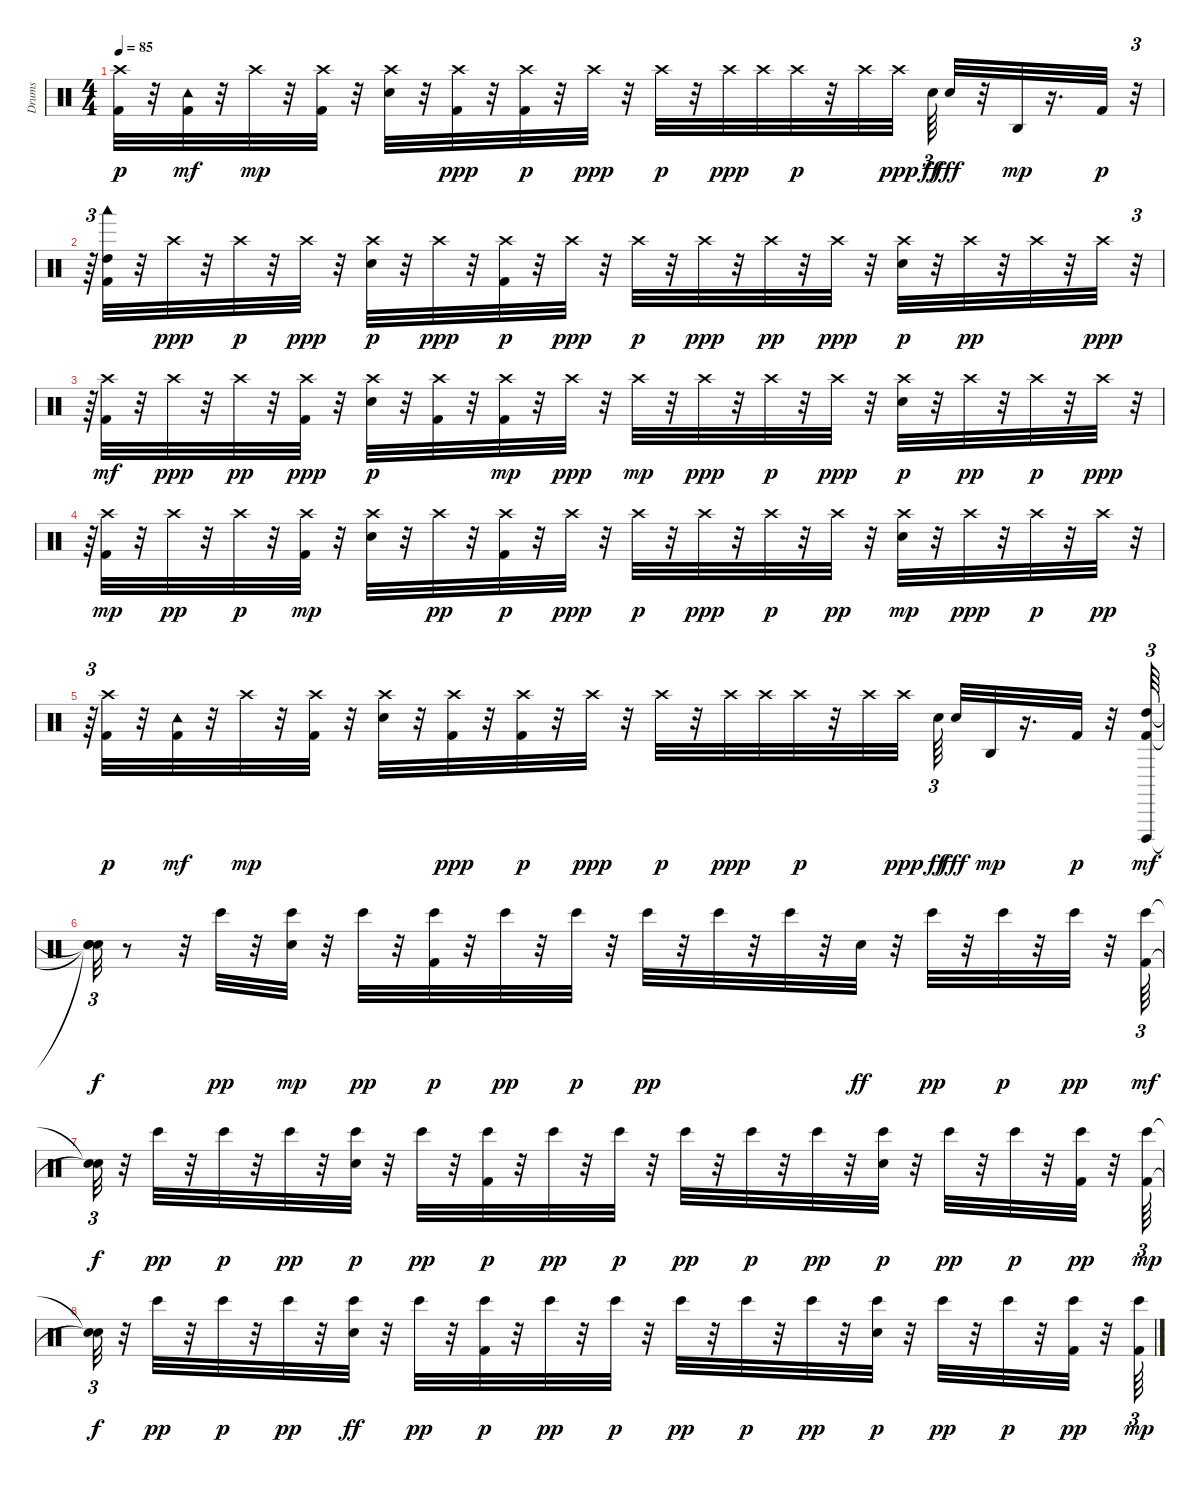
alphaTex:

\track ("Drums" "Drums") {instrument percussion}
\staff {score}
\articulation defaults
\ts (4 4)
\tempo 85
\clef neutral
\ks c
("Kick (hit) 2" "Crash high (hit)").32{dy p} r.32 ("Kick (hit) 2" "Tambourine (hit)").32{dy mf} r.32 "Crash high (hit)".32{dy mp} r.32 ("Crash high (hit)" "Kick (hit) 2").32 r.32 ("Snare (hit) 2" "Crash high (hit)").32 r.32 ("Kick (hit) 2" "Crash high (hit)").32{dy ppp} r.32 ("Kick (hit) 2" "Crash high (hit)").32{dy p} r.32 "Crash high (hit)".32{dy ppp} r.32 "Crash high (hit)".32{dy p} r.32 "Crash high (hit)".32{dy ppp} "Crash high (hit)".32 "Crash high (hit)".32{dy p} r.32 "Crash high (hit)".32 "Crash high (hit)".32{dy ppp} "Snare (hit) 2".64{tu (3 2) dy ff} "Snare (hit) 2".32{dy fff} r.32 "Agogo high (hit)".32{dy mp} r.16{d} "Kick (hit) 2".32{dy p} r.32{tu (3 2)} |
r.64{tu (3 2)} ("Kick (hit) 2" "High Tom (hit)" "Woodblock low (hit)").32 r.32 "Crash high (hit)".32{dy ppp} r.32 "Crash high (hit)".32{dy p} r.32 "Crash high (hit)".32{dy ppp} r.32 ("Snare (hit) 2" "Crash high (hit)").32{dy p} r.32 "Crash high (hit)".32{dy ppp} r.32 ("Kick (hit) 2" "Crash high (hit)").32{dy p} r.32 "Crash high (hit)".32{dy ppp} r.32 "Crash high (hit)".32{dy p} r.32 "Crash high (hit)".32{dy ppp} r.32 "Crash high (hit)".32{dy pp} r.32 "Crash high (hit)".32{dy ppp} r.32 ("Crash high (hit)" "Snare (hit) 2").32{dy p} r.32 "Crash high (hit)".32{dy pp} r.32 "Crash high (hit)".32 r.32 "Crash high (hit)".32{dy ppp} r.32{tu (3 2)} |
r.64{tu (3 2)} ("Crash high (hit)" "Kick (hit) 2").32{dy mf} r.32 "Crash high (hit)".32{dy ppp} r.32 "Crash high (hit)".32{dy pp} r.32 ("Kick (hit) 2" "Crash high (hit)").32{dy ppp} r.32 ("Snare (hit) 2" "Crash high (hit)").32{dy p} r.32 ("Crash high (hit)" "Kick (hit) 2").32 r.32 ("Kick (hit) 2" "Crash high (hit)").32{dy mp} r.32 "Crash high (hit)".32{dy ppp} r.32 "Crash high (hit)".32{dy mp} r.32 "Crash high (hit)".32{dy ppp} r.32 "Crash high (hit)".32{dy p} r.32 "Crash high (hit)".32{dy ppp} r.32 ("Snare (hit) 2" "Crash high (hit)").32{dy p} r.32 "Crash high (hit)".32{dy pp} r.32 "Crash high (hit)".32{dy p} r.32 "Crash high (hit)".32{dy ppp} r.32{tu (3 2)} |
r.64{tu (3 2)} ("Crash high (hit)" "Kick (hit) 2").32{dy mp} r.32 "Crash high (hit)".32{dy pp} r.32 "Crash high (hit)".32{dy p} r.32 ("Crash high (hit)" "Kick (hit) 2").32{dy mp} r.32 ("Snare (hit) 2" "Crash high (hit)").32 r.32 "Crash high (hit)".32{dy pp} r.32 ("Kick (hit) 2" "Crash high (hit)").32{dy p} r.32 "Crash high (hit)".32{dy ppp} r.32 "Crash high (hit)".32{dy p} r.32 "Crash high (hit)".32{dy ppp} r.32 "Crash high (hit)".32{dy p} r.32 "Crash high (hit)".32{dy pp} r.32 ("Snare (hit) 2" "Crash high (hit)").32{dy mp} r.32 "Crash high (hit)".32{dy ppp} r.32 "Crash high (hit)".32{dy p} r.32 "Crash high (hit)".32{dy pp} r.32{tu (3 2)} |
r.64{tu (3 2)} ("Kick (hit) 2" "Crash high (hit)").32{dy p} r.32 ("Kick (hit) 2" "Tambourine (hit)").32{dy mf} r.32 "Crash high (hit)".32{dy mp} r.32 ("Crash high (hit)" "Kick (hit) 2").32 r.32 ("Snare (hit) 2" "Crash high (hit)").32 r.32 ("Kick (hit) 2" "Crash high (hit)").32{dy ppp} r.32 ("Kick (hit) 2" "Crash high (hit)").32{dy p} r.32 "Crash high (hit)".32{dy ppp} r.32 "Crash high (hit)".32{dy p} r.32 "Crash high (hit)".32{dy ppp} "Crash high (hit)".32 "Crash high (hit)".32{dy p} r.32 "Crash high (hit)".32 "Crash high (hit)".32{dy ppp} "Snare (hit) 2".64{tu (3 2) dy ff beam splitsecondary} "Snare (hit) 2".32{dy fff} "Agogo high (hit)".32{dy mp} r.16{d} "Kick (hit) 2".32{dy p} r.32 ("Kick (hit) 2" "High Tom (hit)" "Cuica (open)").64{tu (3 2) dy mf} |
("Snare (hit)"{t} "Snare (hit)"{t} "Snare (hit)"{t}).32{tu (3 2) dy f} r.8 r.32 "Bongo High (hit)".32{dy pp} r.32 ("Snare (hit) 2" "Bongo High (hit)").32{dy mp} r.32 "Bongo High (hit)".32{dy pp} r.32 ("Kick (hit) 2" "Bongo High (hit)").32{dy p} r.32 "Bongo High (hit)".32{dy pp} r.32 "Bongo High (hit)".32{dy p} r.32 "Bongo High (hit)".32{dy pp} r.32 "Bongo High (hit)".32 r.32 "Bongo High (hit)".32 r.32 "Snare (hit) 2".32{dy ff} r.32 "Bongo High (hit)".32{dy pp} r.32 "Bongo High (hit)".32{dy p} r.32 "Bongo High (hit)".32{dy pp} r.32 ("Bongo High (hit)" "Kick (hit) 2").64{tu (3 2) dy mf} |
("Snare (hit)"{t} "Snare (hit)"{t}).32{tu (3 2) dy f} r.32 "Bongo High (hit)".32{dy pp} r.32 "Bongo High (hit)".32{dy p} r.32 "Bongo High (hit)".32{dy pp} r.32 ("Snare (hit) 2" "Bongo High (hit)").32{dy p} r.32 "Bongo High (hit)".32{dy pp} r.32 ("Kick (hit) 2" "Bongo High (hit)").32{dy p} r.32 "Bongo High (hit)".32{dy pp} r.32 "Bongo High (hit)".32{dy p} r.32 "Bongo High (hit)".32{dy pp} r.32 "Bongo High (hit)".32{dy p} r.32 "Bongo High (hit)".32{dy pp} r.32 ("Snare (hit) 2" "Bongo High (hit)").32{dy p} r.32 "Bongo High (hit)".32{dy pp} r.32 "Bongo High (hit)".32{dy p} r.32 ("Bongo High (hit)" "Kick (hit) 2").32{dy pp} r.32 ("Kick (hit) 2" "Bongo High (hit)").64{tu (3 2) dy mp} |
("Snare (hit)"{t} "Snare (hit)"{t}).32{tu (3 2) dy f} r.32 "Bongo High (hit)".32{dy pp} r.32 "Bongo High (hit)".32{dy p} r.32 "Bongo High (hit)".32{dy pp} r.32 ("Bongo High (hit)" "Snare (hit) 2").32{dy ff} r.32 "Bongo High (hit)".32{dy pp} r.32 ("Kick (hit) 2" "Bongo High (hit)").32{dy p} r.32 "Bongo High (hit)".32{dy pp} r.32 "Bongo High (hit)".32{dy p} r.32 "Bongo High (hit)".32{dy pp} r.32 "Bongo High (hit)".32{dy p} r.32 "Bongo High (hit)".32{dy pp} r.32 ("Snare (hit) 2" "Bongo High (hit)").32{dy p} r.32 "Bongo High (hit)".32{dy pp} r.32 "Bongo High (hit)".32{dy p} r.32 ("Kick (hit) 2" "Bongo High (hit)").32{dy pp} r.32 ("Bongo High (hit)" "Kick (hit) 2").64{tu (3 2) dy mp}
